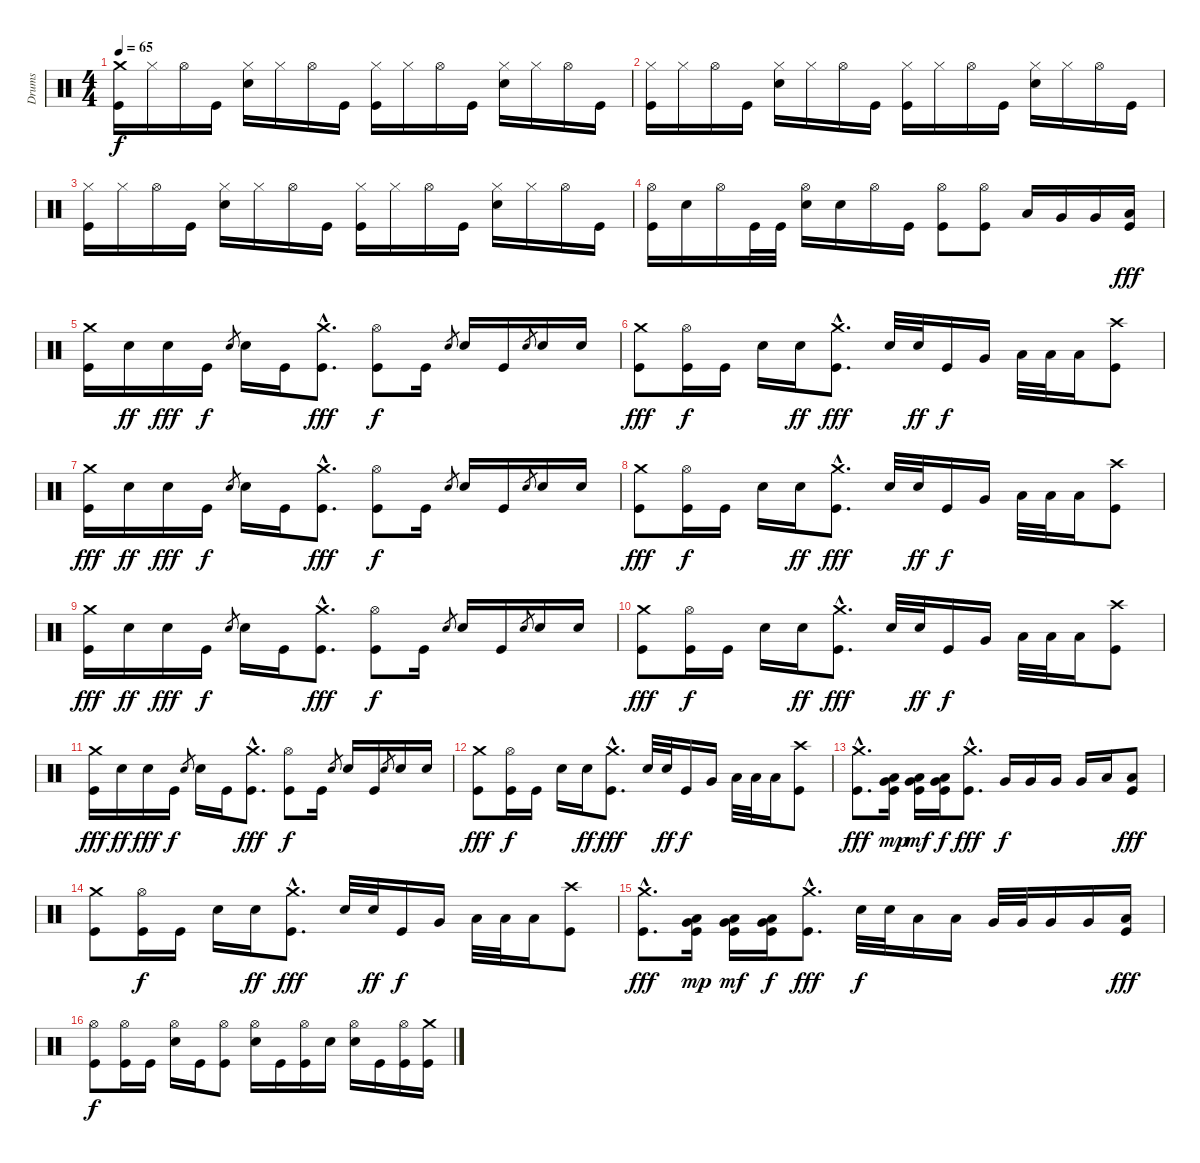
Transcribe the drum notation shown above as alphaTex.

\track ("Drums" "Drums") {instrument percussion}
\staff {score}
\articulation defaults
\ts (4 4)
\tempo 65
\clef neutral
\ks c
("Crash medium (hit)" "Kick (hit)").16{dy f} "Hi-Hat (closed)".16 "Hi-Hat (open)".16 "Kick (hit)".16 ("Hi-Hat (closed)" "Snare (hit) 2").16 "Hi-Hat (closed)".16 "Hi-Hat (open)".16 "Kick (hit)".16 ("Hi-Hat (closed)" "Kick (hit)").16 "Hi-Hat (closed)".16 "Hi-Hat (open)".16 "Kick (hit)".16 ("Hi-Hat (closed)" "Snare (hit) 2").16 "Hi-Hat (closed)".16 "Hi-Hat (open)".16 "Kick (hit)".16 |
("Hi-Hat (closed)" "Kick (hit)").16 "Hi-Hat (closed)".16 "Hi-Hat (open)".16 "Kick (hit)".16 ("Hi-Hat (closed)" "Snare (hit) 2").16 "Hi-Hat (closed)".16 "Hi-Hat (open)".16 "Kick (hit)".16 ("Hi-Hat (closed)" "Kick (hit)").16 "Hi-Hat (closed)".16 "Hi-Hat (open)".16 "Kick (hit)".16 ("Hi-Hat (closed)" "Snare (hit) 2").16 "Hi-Hat (closed)".16 "Hi-Hat (open)".16 "Kick (hit)".16 |
("Hi-Hat (closed)" "Kick (hit)").16 "Hi-Hat (closed)".16 "Hi-Hat (open)".16 "Kick (hit)".16 ("Hi-Hat (closed)" "Snare (hit) 2").16 "Hi-Hat (closed)".16 "Hi-Hat (open)".16 "Kick (hit)".16 ("Hi-Hat (closed)" "Kick (hit)").16 "Hi-Hat (closed)".16 "Hi-Hat (open)".16 "Kick (hit)".16 ("Hi-Hat (closed)" "Snare (hit) 2").16 "Hi-Hat (closed)".16 "Hi-Hat (open)".16 "Kick (hit)".16 |
("Hi-Hat (open)" "Kick (hit)").16 "Snare (hit) 2".16 "Hi-Hat (open)".16 "Kick (hit)".32 "Kick (hit)".32 ("Hi-Hat (open)" "Snare (hit) 2").16 "Snare (hit) 2".16 "Hi-Hat (open)".16 "Kick (hit)".16 ("Hi-Hat (open)" "Kick (hit)").8 ("Hi-Hat (open)" "Kick (hit)").8 "Low Tom (hit)".16 "Very Low Tom (hit)".16 "Very Low Tom (hit)".16 ("Low Floor Tom (hit)" "Kick (hit)").16{dy fff} |
("Crash medium (hit)" "Kick (hit)").16 "Snare (hit) 2".16{dy ff} "Snare (hit) 2".16{dy fff} "Kick (hit)".16{dy f} "Snare (hit) 2".8{gr} "Snare (hit) 2".16 "Kick (hit)".16 ("Crash medium (hit)"{hac} "Kick (hit)"{hac}).8{d dy fff} ("Hi-Hat (open)" "Kick (hit)").8{dy f} "Kick (hit)".16 "Snare (hit) 2".8{gr} "Snare (hit) 2".16 "Kick (hit)".16 "Snare (hit) 2".8{gr} "Snare (hit) 2".16 "Snare (hit) 2".16 |
("Crash medium (hit)" "Kick (hit)").8{dy fff} ("Hi-Hat (open)" "Kick (hit)").16{dy f} "Kick (hit)".16 "Snare (hit) 2".16 "Snare (hit) 2".16{dy ff} ("Crash medium (hit)"{hac} "Kick (hit)"{hac}).8{d dy fff} "Snare (hit) 2".32 "Snare (hit) 2".32{dy ff} "Kick (hit)".16{dy f} "Very Low Tom (hit)".16 "Low Floor Tom (hit)".32 "Low Floor Tom (hit)".32 "Low Floor Tom (hit)".16 ("Crash high (hit)" "Kick (hit)").8 |
("Crash medium (hit)" "Kick (hit)").16{dy fff} "Snare (hit) 2".16{dy ff} "Snare (hit) 2".16{dy fff} "Kick (hit)".16{dy f} "Snare (hit) 2".8{gr} "Snare (hit) 2".16 "Kick (hit)".16 ("Crash medium (hit)"{hac} "Kick (hit)"{hac}).8{d dy fff} ("Hi-Hat (open)" "Kick (hit)").8{dy f} "Kick (hit)".16 "Snare (hit) 2".8{gr} "Snare (hit) 2".16 "Kick (hit)".16 "Snare (hit) 2".8{gr} "Snare (hit) 2".16 "Snare (hit) 2".16 |
("Crash medium (hit)" "Kick (hit)").8{dy fff} ("Hi-Hat (open)" "Kick (hit)").16{dy f} "Kick (hit)".16 "Snare (hit) 2".16 "Snare (hit) 2".16{dy ff} ("Crash medium (hit)"{hac} "Kick (hit)"{hac}).8{d dy fff} "Snare (hit) 2".32 "Snare (hit) 2".32{dy ff} "Kick (hit)".16{dy f} "Very Low Tom (hit)".16 "Low Floor Tom (hit)".32 "Low Floor Tom (hit)".32 "Low Floor Tom (hit)".16 ("Crash high (hit)" "Kick (hit)").8 |
("Crash medium (hit)" "Kick (hit)").16{dy fff} "Snare (hit) 2".16{dy ff} "Snare (hit) 2".16{dy fff} "Kick (hit)".16{dy f} "Snare (hit) 2".8{gr} "Snare (hit) 2".16 "Kick (hit)".16 ("Crash medium (hit)"{hac} "Kick (hit)"{hac}).8{d dy fff} ("Hi-Hat (open)" "Kick (hit)").8{dy f} "Kick (hit)".16 "Snare (hit) 2".8{gr} "Snare (hit) 2".16 "Kick (hit)".16 "Snare (hit) 2".8{gr} "Snare (hit) 2".16 "Snare (hit) 2".16 |
("Crash medium (hit)" "Kick (hit)").8{dy fff} ("Hi-Hat (open)" "Kick (hit)").16{dy f} "Kick (hit)".16 "Snare (hit) 2".16 "Snare (hit) 2".16{dy ff} ("Crash medium (hit)"{hac} "Kick (hit)"{hac}).8{d dy fff} "Snare (hit) 2".32 "Snare (hit) 2".32{dy ff} "Kick (hit)".16{dy f} "Very Low Tom (hit)".16 "Low Floor Tom (hit)".32 "Low Floor Tom (hit)".32 "Low Floor Tom (hit)".16 ("Crash high (hit)" "Kick (hit)").8 |
("Crash medium (hit)" "Kick (hit)").16{dy fff} "Snare (hit) 2".16{dy ff} "Snare (hit) 2".16{dy fff} "Kick (hit)".16{dy f} "Snare (hit) 2".8{gr} "Snare (hit) 2".16 "Kick (hit)".16 ("Crash medium (hit)"{hac} "Kick (hit)"{hac}).8{d dy fff} ("Hi-Hat (open)" "Kick (hit)").8{dy f} "Kick (hit)".16 "Snare (hit) 2".8{gr} "Snare (hit) 2".16 "Kick (hit)".16 "Snare (hit) 2".8{gr} "Snare (hit) 2".16 "Snare (hit) 2".16 |
("Crash medium (hit)" "Kick (hit)").8{dy fff} ("Hi-Hat (open)" "Kick (hit)").16{dy f} "Kick (hit)".16 "Snare (hit) 2".16 "Snare (hit) 2".16{dy ff} ("Crash medium (hit)"{hac} "Kick (hit)"{hac}).8{d dy fff} "Snare (hit) 2".32 "Snare (hit) 2".32{dy ff} "Kick (hit)".16{dy f} "Very Low Tom (hit)".16 "Low Floor Tom (hit)".32 "Low Floor Tom (hit)".32 "Low Floor Tom (hit)".16 ("Crash high (hit)" "Kick (hit)").8 |
("Crash medium (hit)"{hac} "Kick (hit)"{hac}).8{d dy fff} ("Very Low Tom (hit)" "Low Floor Tom (hit)" "Kick (hit)").16{dy mp} ("Very Low Tom (hit)" "Low Floor Tom (hit)" "Kick (hit)").16{dy mf} ("Very Low Tom (hit)" "Low Floor Tom (hit)" "Kick (hit)").16{dy f} ("Crash medium (hit)"{hac} "Kick (hit)"{hac}).8{d dy fff} "Very Low Tom (hit)".16{dy f} "Very Low Tom (hit)".16 "Very Low Tom (hit)".16 "Very Low Tom (hit)".16 "Low Floor Tom (hit)".16 ("Low Floor Tom (hit)" "Kick (hit)").8{dy fff} |
("Crash medium (hit)" "Kick (hit)").8 ("Hi-Hat (open)" "Kick (hit)").16{dy f} "Kick (hit)".16 "Snare (hit) 2".16 "Snare (hit) 2".16{dy ff} ("Crash medium (hit)"{hac} "Kick (hit)"{hac}).8{d dy fff} "Snare (hit) 2".32 "Snare (hit) 2".32{dy ff} "Kick (hit)".16{dy f} "Very Low Tom (hit)".16 "Low Floor Tom (hit)".32 "Low Floor Tom (hit)".32 "Low Floor Tom (hit)".16 ("Crash high (hit)" "Kick (hit)").8 |
("Crash medium (hit)"{hac} "Kick (hit)"{hac}).8{d dy fff} ("Very Low Tom (hit)" "Low Floor Tom (hit)" "Kick (hit)").16{dy mp} ("Very Low Tom (hit)" "Low Floor Tom (hit)" "Kick (hit)").16{dy mf} ("Very Low Tom (hit)" "Low Floor Tom (hit)" "Kick (hit)").16{dy f} ("Crash medium (hit)"{hac} "Kick (hit)"{hac}).8{d dy fff} "Snare (hit) 2".32{dy f} "Snare (hit) 2".32 "Low Tom (hit)".16 "Low Tom (hit)".16 "Very Low Tom (hit)".32 "Very Low Tom (hit)".32 "Very Low Tom (hit)".16 "Very Low Tom (hit)".16 ("Low Floor Tom (hit)" "Kick (hit)").16{dy fff} |
("Hi-Hat (open)" "Kick (hit)").8{dy f volume 14} ("Hi-Hat (open)" "Kick (hit)").16 "Kick (hit)".16 ("Hi-Hat (open)" "Snare (hit) 2").16 "Kick (hit)".16 ("Hi-Hat (open)" "Kick (hit)").8 ("Hi-Hat (open)" "Snare (hit) 2").16 "Kick (hit)".16 ("Hi-Hat (open)" "Kick (hit)").16 "Snare (hit) 2".16 ("Hi-Hat (open)" "Snare (hit) 2").16 "Kick (hit)".16 ("Hi-Hat (open)" "Kick (hit)").16 ("Crash medium (hit)" "Kick (hit)").16
